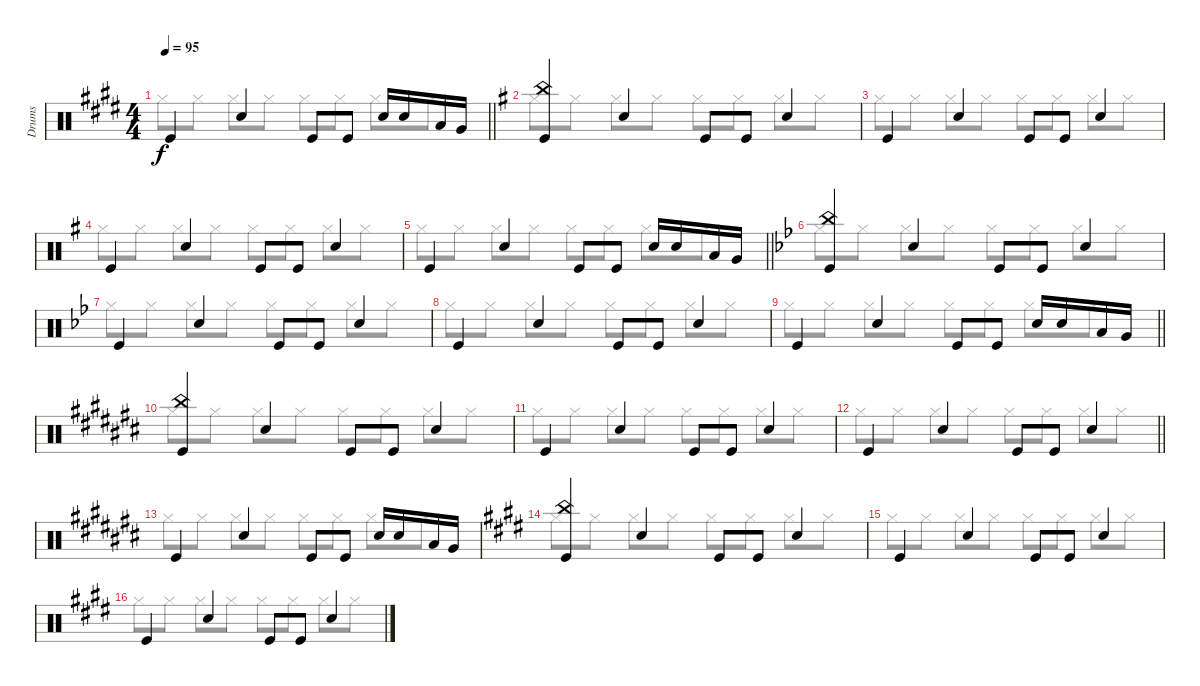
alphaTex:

\track ("Drums" "Drums") {instrument percussion}
\staff {score}
\articulation defaults
\voice
\ts (4 4)
\tempo 95
\clef neutral
\barLineRight lightlight
\ks c#minor "Kick (hit)".4{dy f} "Snare (hit) 2".4 "Kick (hit)".8 "Kick (hit)".8 "Snare (hit) 2".16 "Snare (hit) 2".16 "Low Tom (hit)".16 "Very Low Tom (hit)".16
|
\ks eminor
("China (hit)" "Kick (hit)").4 "Snare (hit) 2".4 "Kick (hit)".8 "Kick (hit)".8 "Snare (hit) 2".4 |
"Kick (hit)".4 "Snare (hit) 2".4 "Kick (hit)".8 "Kick (hit)".8 "Snare (hit) 2".4 |
"Kick (hit)".4 "Snare (hit) 2".4 "Kick (hit)".8 "Kick (hit)".8 "Snare (hit) 2".4 |
\barLineRight lightlight "Kick (hit)".4 "Snare (hit) 2".4 "Kick (hit)".8 "Kick (hit)".8 "Snare (hit) 2".16 "Snare (hit) 2".16 "Low Tom (hit)".16 "Very Low Tom (hit)".16
|
\ks gminor
("China (hit)" "Kick (hit)").4 "Snare (hit) 2".4 "Kick (hit)".8 "Kick (hit)".8 "Snare (hit) 2".4 |
"Kick (hit)".4 "Snare (hit) 2".4 "Kick (hit)".8 "Kick (hit)".8 "Snare (hit) 2".4 |
"Kick (hit)".4 "Snare (hit) 2".4 "Kick (hit)".8 "Kick (hit)".8 "Snare (hit) 2".4 |
\barLineRight lightlight "Kick (hit)".4 "Snare (hit) 2".4 "Kick (hit)".8 "Kick (hit)".8 "Snare (hit) 2".16 "Snare (hit) 2".16 "Low Tom (hit)".16 "Very Low Tom (hit)".16
|
\ks a#minor
("China (hit)" "Kick (hit)").4 "Snare (hit) 2".4 "Kick (hit)".8 "Kick (hit)".8 "Snare (hit) 2".4 |
"Kick (hit)".4 "Snare (hit) 2".4 "Kick (hit)".8 "Kick (hit)".8 "Snare (hit) 2".4 |
\barLineRight lightlight "Kick (hit)".4 "Snare (hit) 2".4 "Kick (hit)".8 "Kick (hit)".8 "Snare (hit) 2".4
|
"Kick (hit)".4 "Snare (hit) 2".4 "Kick (hit)".8 "Kick (hit)".8 "Snare (hit) 2".16 "Snare (hit) 2".16 "Low Tom (hit)".16 "Very Low Tom (hit)".16 |
\ks c#minor
("China (hit)" "Kick (hit)").4 "Snare (hit) 2".4 "Kick (hit)".8 "Kick (hit)".8 "Snare (hit) 2".4 |
"Kick (hit)".4 "Snare (hit) 2".4 "Kick (hit)".8 "Kick (hit)".8 "Snare (hit) 2".4 |
"Kick (hit)".4 "Snare (hit) 2".4 "Kick (hit)".8 "Kick (hit)".8 "Snare (hit) 2".4
\voice
\clef neutral
\ottava regular
\simile none
\barLineRight lightlight
\ks c#minor "Hi-Hat (closed)".8{dy f} "Hi-Hat (closed)".8 "Hi-Hat (closed)".8 "Hi-Hat (closed)".8 "Hi-Hat (closed)".8 "Hi-Hat (closed)".8 "Hi-Hat (closed)".8 "Hi-Hat (closed)".8
|
\ks eminor "Hi-Hat (closed)".8 "Hi-Hat (closed)".8 "Hi-Hat (closed)".8 "Hi-Hat (closed)".8 "Hi-Hat (closed)".8 "Hi-Hat (closed)".8 "Hi-Hat (closed)".8 "Hi-Hat (closed)".8
|
"Hi-Hat (closed)".8 "Hi-Hat (closed)".8 "Hi-Hat (closed)".8 "Hi-Hat (closed)".8 "Hi-Hat (closed)".8 "Hi-Hat (closed)".8 "Hi-Hat (closed)".8 "Hi-Hat (closed)".8 |
"Hi-Hat (closed)".8 "Hi-Hat (closed)".8 "Hi-Hat (closed)".8 "Hi-Hat (closed)".8 "Hi-Hat (closed)".8 "Hi-Hat (closed)".8 "Hi-Hat (closed)".8 "Hi-Hat (closed)".8 |
\barLineRight lightlight "Hi-Hat (closed)".8 "Hi-Hat (closed)".8 "Hi-Hat (closed)".8 "Hi-Hat (closed)".8 "Hi-Hat (closed)".8 "Hi-Hat (closed)".8 "Hi-Hat (closed)".8 "Hi-Hat (closed)".8
|
\ks gminor "Hi-Hat (closed)".8 "Hi-Hat (closed)".8 "Hi-Hat (closed)".8 "Hi-Hat (closed)".8 "Hi-Hat (closed)".8 "Hi-Hat (closed)".8 "Hi-Hat (closed)".8 "Hi-Hat (closed)".8
|
"Hi-Hat (closed)".8 "Hi-Hat (closed)".8 "Hi-Hat (closed)".8 "Hi-Hat (closed)".8 "Hi-Hat (closed)".8 "Hi-Hat (closed)".8 "Hi-Hat (closed)".8 "Hi-Hat (closed)".8 |
"Hi-Hat (closed)".8 "Hi-Hat (closed)".8 "Hi-Hat (closed)".8 "Hi-Hat (closed)".8 "Hi-Hat (closed)".8 "Hi-Hat (closed)".8 "Hi-Hat (closed)".8 "Hi-Hat (closed)".8 |
\barLineRight lightlight "Hi-Hat (closed)".8 "Hi-Hat (closed)".8 "Hi-Hat (closed)".8 "Hi-Hat (closed)".8 "Hi-Hat (closed)".8 "Hi-Hat (closed)".8 "Hi-Hat (closed)".8 "Hi-Hat (closed)".8
|
\ks a#minor "Hi-Hat (closed)".8 "Hi-Hat (closed)".8 "Hi-Hat (closed)".8 "Hi-Hat (closed)".8 "Hi-Hat (closed)".8 "Hi-Hat (closed)".8 "Hi-Hat (closed)".8 "Hi-Hat (closed)".8
|
"Hi-Hat (closed)".8 "Hi-Hat (closed)".8 "Hi-Hat (closed)".8 "Hi-Hat (closed)".8 "Hi-Hat (closed)".8 "Hi-Hat (closed)".8 "Hi-Hat (closed)".8 "Hi-Hat (closed)".8 |
\barLineRight lightlight "Hi-Hat (closed)".8 "Hi-Hat (closed)".8 "Hi-Hat (closed)".8 "Hi-Hat (closed)".8 "Hi-Hat (closed)".8 "Hi-Hat (closed)".8 "Hi-Hat (closed)".8 "Hi-Hat (closed)".8
|
"Hi-Hat (closed)".8 "Hi-Hat (closed)".8 "Hi-Hat (closed)".8 "Hi-Hat (closed)".8 "Hi-Hat (closed)".8 "Hi-Hat (closed)".8 "Hi-Hat (closed)".8 "Hi-Hat (closed)".8 |
\ks c#minor "Hi-Hat (closed)".8 "Hi-Hat (closed)".8 "Hi-Hat (closed)".8 "Hi-Hat (closed)".8 "Hi-Hat (closed)".8 "Hi-Hat (closed)".8 "Hi-Hat (closed)".8 "Hi-Hat (closed)".8
|
"Hi-Hat (closed)".8 "Hi-Hat (closed)".8 "Hi-Hat (closed)".8 "Hi-Hat (closed)".8 "Hi-Hat (closed)".8 "Hi-Hat (closed)".8 "Hi-Hat (closed)".8 "Hi-Hat (closed)".8 |
"Hi-Hat (closed)".8 "Hi-Hat (closed)".8 "Hi-Hat (closed)".8 "Hi-Hat (closed)".8 "Hi-Hat (closed)".8 "Hi-Hat (closed)".8 "Hi-Hat (closed)".8 "Hi-Hat (closed)".8
